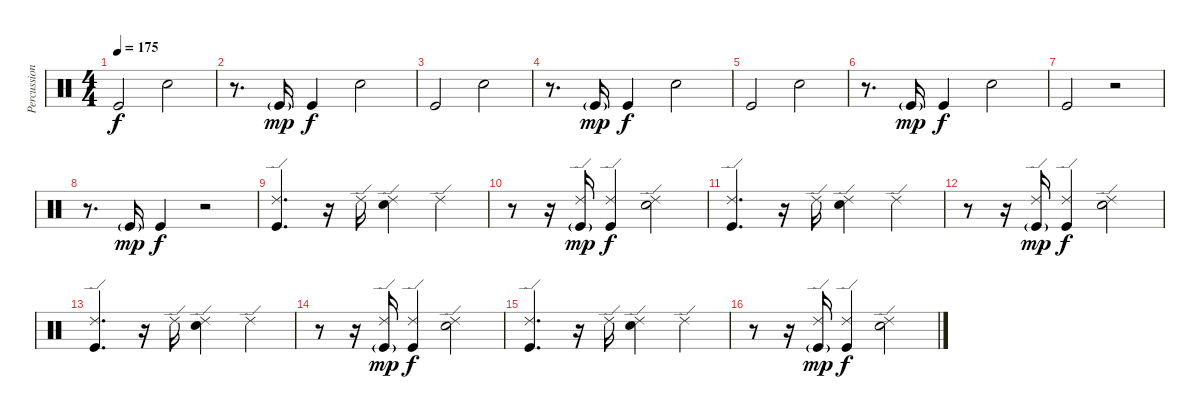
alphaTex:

\track ("Percussion" "Percussion") {instrument percussion}
\staff {score}
\articulation defaults
\ts (4 4)
\tempo 175
\clef neutral
\ks c "Kick (hit)".2{dy f} "Hand Clap (hit)".2
|
r.8{d} "Kick (hit)"{g}.16{dy mp} "Kick (hit)".4{dy f} "Hand Clap (hit)".2 |
"Kick (hit)".2 "Hand Clap (hit)".2 |
r.8{d} "Kick (hit)"{g}.16{dy mp} "Kick (hit)".4{dy f} "Hand Clap (hit)".2 |
"Kick (hit)".2 "Hand Clap (hit)".2 |
r.8{d} "Kick (hit)"{g}.16{dy mp} "Kick (hit)".4{dy f} "Hand Clap (hit)".2 |
"Kick (hit)".2 r.2 |
r.8{d} "Kick (hit)"{g}.16{dy mp} "Kick (hit)".4{dy f} r.2 |
("Ride (edge) 2" "Kick (hit)").4{d} r.16 "Ride (edge) 2".16 ("Ride (edge) 2" "Hand Clap (hit)").4 "Ride (edge) 2".4 |
r.8 r.16 ("Ride (edge) 2" "Kick (hit)"{g}).16{dy mp} ("Ride (edge) 2" "Kick (hit)").4{dy f} ("Ride (edge) 2" "Hand Clap (hit)").2 |
("Ride (edge) 2" "Kick (hit)").4{d} r.16 "Ride (edge) 2".16 ("Ride (edge) 2" "Hand Clap (hit)").4 "Ride (edge) 2".4 |
r.8 r.16 ("Ride (edge) 2" "Kick (hit)"{g}).16{dy mp} ("Ride (edge) 2" "Kick (hit)").4{dy f} ("Ride (edge) 2" "Hand Clap (hit)").2 |
("Ride (edge) 2" "Kick (hit)").4{d} r.16 "Ride (edge) 2".16 ("Ride (edge) 2" "Hand Clap (hit)").4 "Ride (edge) 2".4 |
r.8 r.16 ("Ride (edge) 2" "Kick (hit)"{g}).16{dy mp} ("Ride (edge) 2" "Kick (hit)").4{dy f} ("Ride (edge) 2" "Hand Clap (hit)").2 |
("Ride (edge) 2" "Kick (hit)").4{d} r.16 "Ride (edge) 2".16 ("Ride (edge) 2" "Hand Clap (hit)").4 "Ride (edge) 2".4 |
r.8 r.16 ("Ride (edge) 2" "Kick (hit)"{g}).16{dy mp} ("Ride (edge) 2" "Kick (hit)").4{dy f} ("Ride (edge) 2" "Hand Clap (hit)").2
